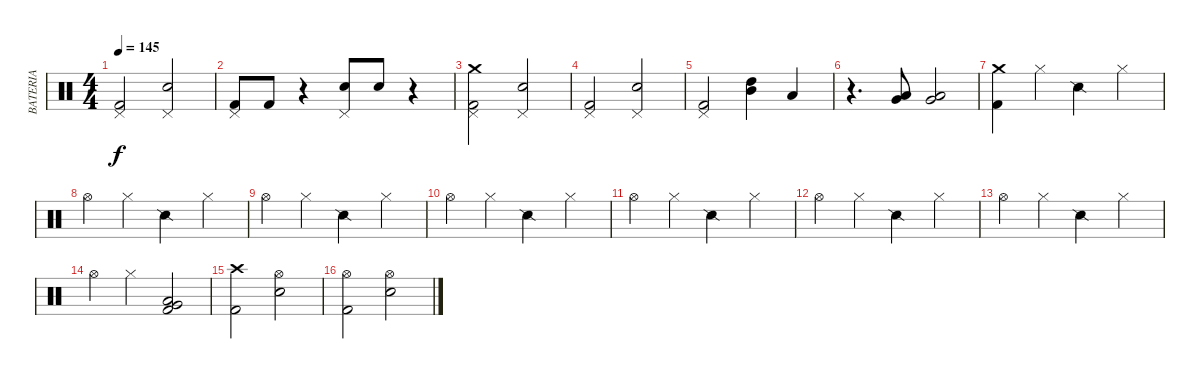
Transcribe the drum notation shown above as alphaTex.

\track ("BATERIA" "BATERIA") {instrument percussion}
\staff {score}
\articulation defaults
\ts (4 4)
\tempo 145
\clef neutral
\ks c
("Pedal Hi-Hat (hit)" "Kick (hit) 2").2{dy f} ("Pedal Hi-Hat (hit)" "Snare (hit) 2").2 |
("Pedal Hi-Hat (hit)" "Kick (hit) 2").8 "Kick (hit) 2".8 r.4 ("Pedal Hi-Hat (hit)" "Snare (hit) 2").8 "Snare (hit) 2".8 r.4 |
("Crash medium (hit)" "Pedal Hi-Hat (hit)" "Kick (hit) 2").2 ("Pedal Hi-Hat (hit)" "Snare (hit) 2").2 |
("Pedal Hi-Hat (hit)" "Kick (hit) 2").2 ("Pedal Hi-Hat (hit)" "Snare (hit) 2").2 |
("Pedal Hi-Hat (hit)" "Kick (hit) 2").2 ("High Tom (hit)" "Mid Tom (hit)").4 "Low Tom (hit)".4 |
r.4{d} ("Low Tom (hit)" "Very Low Tom (hit)").8 ("Low Tom (hit)" "Very Low Tom (hit)").2 |
("Crash medium (hit)" "Kick (hit) 2").4 "Hi-Hat (closed)".4 "Snare (side stick) 2".4 "Hi-Hat (closed)".4 |
"Hi-Hat (open)".4 "Hi-Hat (closed)".4 "Snare (side stick) 2".4 "Hi-Hat (closed)".4 |
"Hi-Hat (open)".4 "Hi-Hat (closed)".4 "Snare (side stick) 2".4 "Hi-Hat (closed)".4 |
"Hi-Hat (open)".4 "Hi-Hat (closed)".4 "Snare (side stick) 2".4 "Hi-Hat (closed)".4 |
"Hi-Hat (open)".4 "Hi-Hat (closed)".4 "Snare (side stick) 2".4 "Hi-Hat (closed)".4 |
"Hi-Hat (open)".4 "Hi-Hat (closed)".4 "Snare (side stick) 2".4 "Hi-Hat (closed)".4 |
"Hi-Hat (open)".4 "Hi-Hat (closed)".4 "Snare (side stick) 2".4 "Hi-Hat (closed)".4 |
"Hi-Hat (open)".4 "Hi-Hat (closed)".4 ("Low Floor Tom (hit)" "Very Low Tom (hit)" "Kick (hit) 2").2 |
("Crash high (hit)" "Kick (hit) 2").2 ("Hi-Hat (open)" "Snare (hit) 2").2 |
("Hi-Hat (open)" "Kick (hit) 2").2 ("Hi-Hat (open)" "Snare (hit) 2").2
